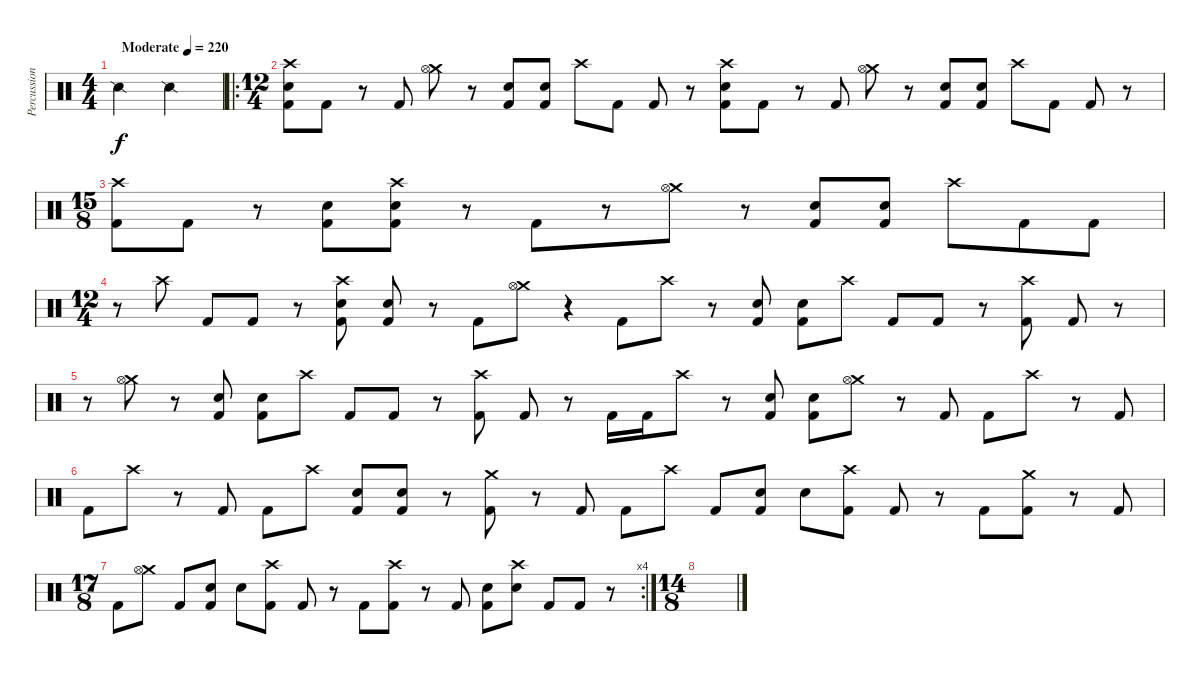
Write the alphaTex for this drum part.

\track ("Percussion" "Percussion") {instrument percussion}
\staff {score}
\articulation defaults
\ts (4 4)
\tempo (220 "Moderate")
\clef neutral
\ks c "Snare (side stick) 2".2{dy f} "Snare (side stick) 2".2
|
\ro
\ts (12 4)
("Crash high (hit)" "Electric Snare (hit)" "Kick (hit) 2").8 "Kick (hit) 2".8 r.8 "Kick (hit) 2".8 ("Crash medium (hit)" "Hi-Hat (open)").8 r.8 ("Electric Snare (hit)" "Kick (hit) 2").8 ("Electric Snare (hit)" "Kick (hit) 2").8 "Crash high (hit)".8 "Kick (hit) 2".8 "Kick (hit) 2".8 r.8 ("Crash high (hit)" "Electric Snare (hit)" "Kick (hit) 2").8 "Kick (hit) 2".8 r.8 "Kick (hit) 2".8 ("Crash medium (hit)" "Hi-Hat (open)").8 r.8 ("Electric Snare (hit)" "Kick (hit) 2").8 ("Electric Snare (hit)" "Kick (hit) 2").8 "Crash high (hit)".8 "Kick (hit) 2".8 "Kick (hit) 2".8 r.8 |
\ts (15 8)
("Crash high (hit)" "Kick (hit) 2").8 "Kick (hit) 2".8 r.8 ("Electric Snare (hit)" "Kick (hit) 2").8 ("Crash high (hit)" "Electric Snare (hit)" "Kick (hit) 2").8 r.8 "Kick (hit) 2".8 r.8 ("Crash medium (hit)" "Hi-Hat (open)").8 r.8 ("Electric Snare (hit)" "Kick (hit) 2").8 ("Electric Snare (hit)" "Kick (hit) 2").8 "Crash high (hit)".8 "Kick (hit) 2".8 "Kick (hit) 2".8 |
\ts (12 4)
r.8 "Crash high (hit)".8 "Kick (hit) 2".8 "Kick (hit) 2".8 r.8 ("Crash high (hit)" "Electric Snare (hit)" "Kick (hit) 2").8 ("Electric Snare (hit)" "Kick (hit) 2").8 r.8 "Kick (hit) 2".8 ("Crash medium (hit)" "Hi-Hat (open)").8 r.4 "Kick (hit) 2".8 "Crash high (hit)".8 r.8 ("Electric Snare (hit)" "Kick (hit) 2").8 ("Electric Snare (hit)" "Kick (hit) 2").8 "Crash high (hit)".8 "Kick (hit) 2".8 "Kick (hit) 2".8 r.8 ("Crash high (hit)" "Kick (hit) 2").8 "Kick (hit) 2".8 r.8 |
r.8 ("Crash medium (hit)" "Hi-Hat (open)").8 r.8 ("Electric Snare (hit)" "Kick (hit) 2").8 ("Electric Snare (hit)" "Kick (hit) 2").8 "Crash high (hit)".8 "Kick (hit) 2".8 "Kick (hit) 2".8 r.8 ("Crash high (hit)" "Kick (hit) 2").8 "Kick (hit) 2".8 r.8 "Kick (hit) 2".16 "Kick (hit) 2".16 "Crash high (hit)".8 r.8 ("Electric Snare (hit)" "Kick (hit) 2").8 ("Electric Snare (hit)" "Kick (hit) 2").8 ("Crash medium (hit)" "Hi-Hat (open)").8 r.8 "Kick (hit) 2".8 "Kick (hit) 2".8 "Crash high (hit)".8 r.8 "Kick (hit) 2".8 |
"Kick (hit) 2".8 "Crash high (hit)".8 r.8 "Kick (hit) 2".8 "Kick (hit) 2".8 "Crash high (hit)".8 ("Electric Snare (hit)" "Kick (hit) 2").8 ("Electric Snare (hit)" "Kick (hit) 2").8 r.8 ("Crash medium (hit)" "Kick (hit) 2").8 r.8 "Kick (hit) 2".8 "Kick (hit) 2".8 "Crash high (hit)".8 "Kick (hit) 2".8 ("Electric Snare (hit)" "Kick (hit) 2").8 "Electric Snare (hit)".8 ("Crash high (hit)" "Kick (hit) 2").8 "Kick (hit) 2".8 r.8 "Kick (hit) 2".8 ("Crash medium (hit)" "Kick (hit) 2").8 r.8 "Kick (hit) 2".8 |
\rc 4
\ts (17 8)
"Kick (hit) 2".8 ("Crash medium (hit)" "Hi-Hat (open)").8 "Kick (hit) 2".8 ("Electric Snare (hit)" "Kick (hit) 2").8 "Electric Snare (hit)".8 ("Crash high (hit)" "Kick (hit) 2").8 "Kick (hit) 2".8 r.8 "Kick (hit) 2".8 ("Crash high (hit)" "Kick (hit) 2").8 r.8 "Kick (hit) 2".8 ("Electric Snare (hit)" "Kick (hit) 2").8 ("Crash high (hit)" "Electric Snare (hit)").8 "Kick (hit) 2".8 "Kick (hit) 2".8 r.8 |
\ts (14 8)
